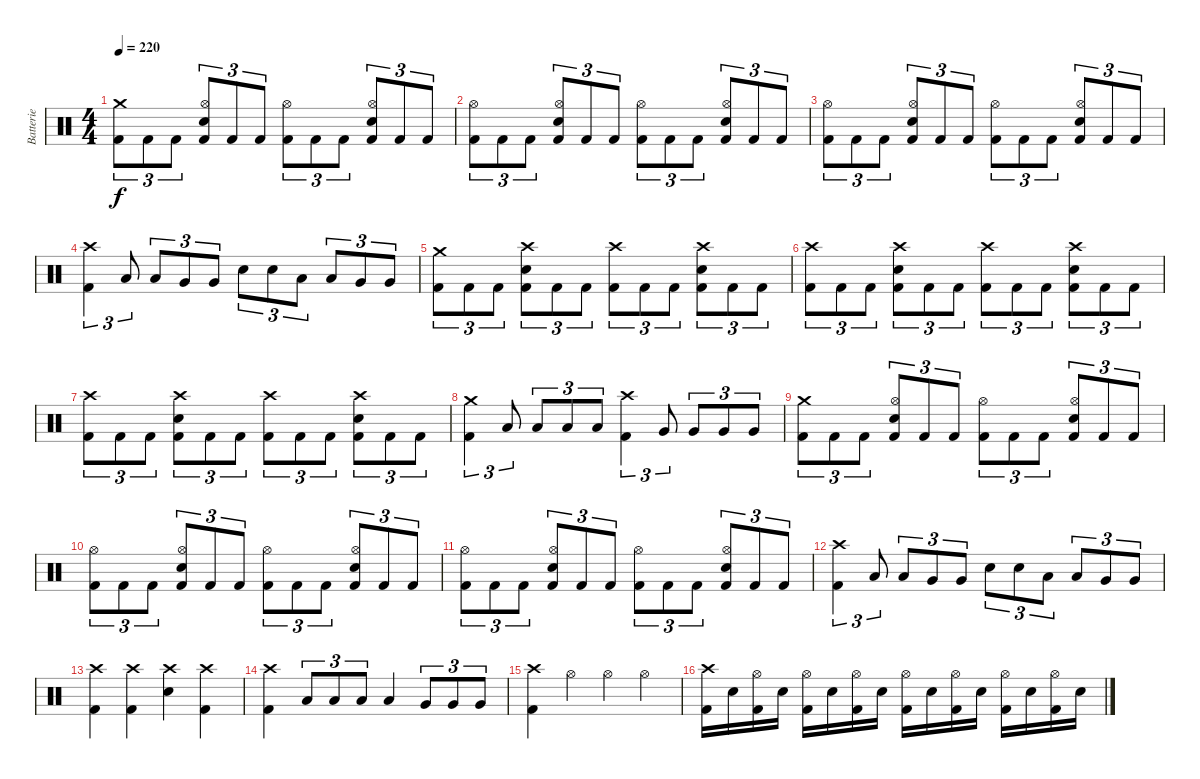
\track ("Batterie" "Batterie") {instrument percussion}
\staff {score}
\articulation defaults
\ts (4 4)
\tempo 220
\clef neutral
\ks c
("Crash medium (hit)" "Kick (hit) 2").8{tu (3 2) dy f} "Kick (hit) 2".8{tu (3 2)} "Kick (hit) 2".8{tu (3 2)} ("Hi-Hat (open)" "Electric Snare (hit)" "Kick (hit) 2").8{tu (3 2)} "Kick (hit) 2".8{tu (3 2)} "Kick (hit) 2".8{tu (3 2)} ("Hi-Hat (open)" "Kick (hit) 2").8{tu (3 2)} "Kick (hit) 2".8{tu (3 2)} "Kick (hit) 2".8{tu (3 2)} ("Hi-Hat (open)" "Electric Snare (hit)" "Kick (hit) 2").8{tu (3 2)} "Kick (hit) 2".8{tu (3 2)} "Kick (hit) 2".8{tu (3 2)} |
("Hi-Hat (open)" "Kick (hit) 2").8{tu (3 2)} "Kick (hit) 2".8{tu (3 2)} "Kick (hit) 2".8{tu (3 2)} ("Hi-Hat (open)" "Electric Snare (hit)" "Kick (hit) 2").8{tu (3 2)} "Kick (hit) 2".8{tu (3 2)} "Kick (hit) 2".8{tu (3 2)} ("Hi-Hat (open)" "Kick (hit) 2").8{tu (3 2)} "Kick (hit) 2".8{tu (3 2)} "Kick (hit) 2".8{tu (3 2)} ("Hi-Hat (open)" "Electric Snare (hit)" "Kick (hit) 2").8{tu (3 2)} "Kick (hit) 2".8{tu (3 2)} "Kick (hit) 2".8{tu (3 2)} |
("Hi-Hat (open)" "Kick (hit) 2").8{tu (3 2)} "Kick (hit) 2".8{tu (3 2)} "Kick (hit) 2".8{tu (3 2)} ("Hi-Hat (open)" "Electric Snare (hit)" "Kick (hit) 2").8{tu (3 2)} "Kick (hit) 2".8{tu (3 2)} "Kick (hit) 2".8{tu (3 2)} ("Hi-Hat (open)" "Kick (hit) 2").8{tu (3 2)} "Kick (hit) 2".8{tu (3 2)} "Kick (hit) 2".8{tu (3 2)} ("Hi-Hat (open)" "Electric Snare (hit)" "Kick (hit) 2").8{tu (3 2)} "Kick (hit) 2".8{tu (3 2)} "Kick (hit) 2".8{tu (3 2)} |
("Crash high (hit)" "Kick (hit) 2").4{tu (3 2)} "Low Tom (hit)".8{tu (3 2)} "Low Tom (hit)".8{tu (3 2)} "Very Low Tom (hit)".8{tu (3 2)} "Very Low Tom (hit)".8{tu (3 2)} "Electric Snare (hit)".8{tu (3 2)} "Electric Snare (hit)".8{tu (3 2)} "Low Tom (hit)".8{tu (3 2)} "Low Tom (hit)".8{tu (3 2)} "Very Low Tom (hit)".8{tu (3 2)} "Very Low Tom (hit)".8{tu (3 2)} |
("Crash medium (hit)" "Kick (hit) 2").8{tu (3 2)} "Kick (hit) 2".8{tu (3 2)} "Kick (hit) 2".8{tu (3 2)} ("Crash high (hit)" "Electric Snare (hit)" "Kick (hit) 2").8{tu (3 2)} "Kick (hit) 2".8{tu (3 2)} "Kick (hit) 2".8{tu (3 2)} ("Crash high (hit)" "Kick (hit) 2").8{tu (3 2)} "Kick (hit) 2".8{tu (3 2)} "Kick (hit) 2".8{tu (3 2)} ("Crash high (hit)" "Electric Snare (hit)" "Kick (hit) 2").8{tu (3 2)} "Kick (hit) 2".8{tu (3 2)} "Kick (hit) 2".8{tu (3 2)} |
("Crash high (hit)" "Kick (hit) 2").8{tu (3 2)} "Kick (hit) 2".8{tu (3 2)} "Kick (hit) 2".8{tu (3 2)} ("Crash high (hit)" "Electric Snare (hit)" "Kick (hit) 2").8{tu (3 2)} "Kick (hit) 2".8{tu (3 2)} "Kick (hit) 2".8{tu (3 2)} ("Crash high (hit)" "Kick (hit) 2").8{tu (3 2)} "Kick (hit) 2".8{tu (3 2)} "Kick (hit) 2".8{tu (3 2)} ("Crash high (hit)" "Electric Snare (hit)" "Kick (hit) 2").8{tu (3 2)} "Kick (hit) 2".8{tu (3 2)} "Kick (hit) 2".8{tu (3 2)} |
("Crash high (hit)" "Kick (hit) 2").8{tu (3 2)} "Kick (hit) 2".8{tu (3 2)} "Kick (hit) 2".8{tu (3 2)} ("Crash high (hit)" "Electric Snare (hit)" "Kick (hit) 2").8{tu (3 2)} "Kick (hit) 2".8{tu (3 2)} "Kick (hit) 2".8{tu (3 2)} ("Crash high (hit)" "Kick (hit) 2").8{tu (3 2)} "Kick (hit) 2".8{tu (3 2)} "Kick (hit) 2".8{tu (3 2)} ("Crash high (hit)" "Electric Snare (hit)" "Kick (hit) 2").8{tu (3 2)} "Kick (hit) 2".8{tu (3 2)} "Kick (hit) 2".8{tu (3 2)} |
("Crash medium (hit)" "Kick (hit) 2").4{tu (3 2)} "Low Tom (hit)".8{tu (3 2)} "Low Tom (hit)".8{tu (3 2)} "Low Tom (hit)".8{tu (3 2)} "Low Tom (hit)".8{tu (3 2)} ("Crash high (hit)" "Kick (hit) 2").4{tu (3 2)} "Very Low Tom (hit)".8{tu (3 2)} "Very Low Tom (hit)".8{tu (3 2)} "Very Low Tom (hit)".8{tu (3 2)} "Very Low Tom (hit)".8{tu (3 2)} |
("Crash medium (hit)" "Kick (hit) 2").8{tu (3 2)} "Kick (hit) 2".8{tu (3 2)} "Kick (hit) 2".8{tu (3 2)} ("Hi-Hat (open)" "Electric Snare (hit)" "Kick (hit) 2").8{tu (3 2)} "Kick (hit) 2".8{tu (3 2)} "Kick (hit) 2".8{tu (3 2)} ("Hi-Hat (open)" "Kick (hit) 2").8{tu (3 2)} "Kick (hit) 2".8{tu (3 2)} "Kick (hit) 2".8{tu (3 2)} ("Hi-Hat (open)" "Electric Snare (hit)" "Kick (hit) 2").8{tu (3 2)} "Kick (hit) 2".8{tu (3 2)} "Kick (hit) 2".8{tu (3 2)} |
("Hi-Hat (open)" "Kick (hit) 2").8{tu (3 2)} "Kick (hit) 2".8{tu (3 2)} "Kick (hit) 2".8{tu (3 2)} ("Hi-Hat (open)" "Electric Snare (hit)" "Kick (hit) 2").8{tu (3 2)} "Kick (hit) 2".8{tu (3 2)} "Kick (hit) 2".8{tu (3 2)} ("Hi-Hat (open)" "Kick (hit) 2").8{tu (3 2)} "Kick (hit) 2".8{tu (3 2)} "Kick (hit) 2".8{tu (3 2)} ("Hi-Hat (open)" "Electric Snare (hit)" "Kick (hit) 2").8{tu (3 2)} "Kick (hit) 2".8{tu (3 2)} "Kick (hit) 2".8{tu (3 2)} |
("Hi-Hat (open)" "Kick (hit) 2").8{tu (3 2)} "Kick (hit) 2".8{tu (3 2)} "Kick (hit) 2".8{tu (3 2)} ("Hi-Hat (open)" "Electric Snare (hit)" "Kick (hit) 2").8{tu (3 2)} "Kick (hit) 2".8{tu (3 2)} "Kick (hit) 2".8{tu (3 2)} ("Hi-Hat (open)" "Kick (hit) 2").8{tu (3 2)} "Kick (hit) 2".8{tu (3 2)} "Kick (hit) 2".8{tu (3 2)} ("Hi-Hat (open)" "Electric Snare (hit)" "Kick (hit) 2").8{tu (3 2)} "Kick (hit) 2".8{tu (3 2)} "Kick (hit) 2".8{tu (3 2)} |
("Crash high (hit)" "Kick (hit) 2").4{tu (3 2)} "Low Tom (hit)".8{tu (3 2)} "Low Tom (hit)".8{tu (3 2)} "Very Low Tom (hit)".8{tu (3 2)} "Very Low Tom (hit)".8{tu (3 2)} "Electric Snare (hit)".8{tu (3 2)} "Electric Snare (hit)".8{tu (3 2)} "Low Tom (hit)".8{tu (3 2)} "Low Tom (hit)".8{tu (3 2)} "Very Low Tom (hit)".8{tu (3 2)} "Very Low Tom (hit)".8{tu (3 2)} |
("Crash high (hit)" "Kick (hit) 2").4 ("Crash high (hit)" "Kick (hit) 2").4 ("Crash high (hit)" "Electric Snare (hit)").4 ("Crash high (hit)" "Kick (hit) 2").4 |
("Crash high (hit)" "Kick (hit) 2").4 "Low Tom (hit)".8{tu (3 2)} "Low Tom (hit)".8{tu (3 2)} "Low Tom (hit)".8{tu (3 2)} "Low Tom (hit)".4 "Very Low Tom (hit)".8{tu (3 2)} "Very Low Tom (hit)".8{tu (3 2)} "Very Low Tom (hit)".8{tu (3 2)} |
("Crash high (hit)" "Kick (hit) 2").4 "Hi-Hat (open)".4 "Hi-Hat (open)".4 "Hi-Hat (open)".4 |
("Crash high (hit)" "Kick (hit) 2").16 "Electric Snare (hit)".16 ("Hi-Hat (open)" "Kick (hit) 2").16 "Electric Snare (hit)".16 ("Hi-Hat (open)" "Kick (hit) 2").16 "Electric Snare (hit)".16 ("Hi-Hat (open)" "Kick (hit) 2").16 "Electric Snare (hit)".16 ("Hi-Hat (open)" "Kick (hit) 2").16 "Electric Snare (hit)".16 ("Hi-Hat (open)" "Kick (hit) 2").16 "Electric Snare (hit)".16 ("Hi-Hat (open)" "Kick (hit) 2").16 "Electric Snare (hit)".16 ("Hi-Hat (open)" "Kick (hit) 2").16 "Electric Snare (hit)".16
